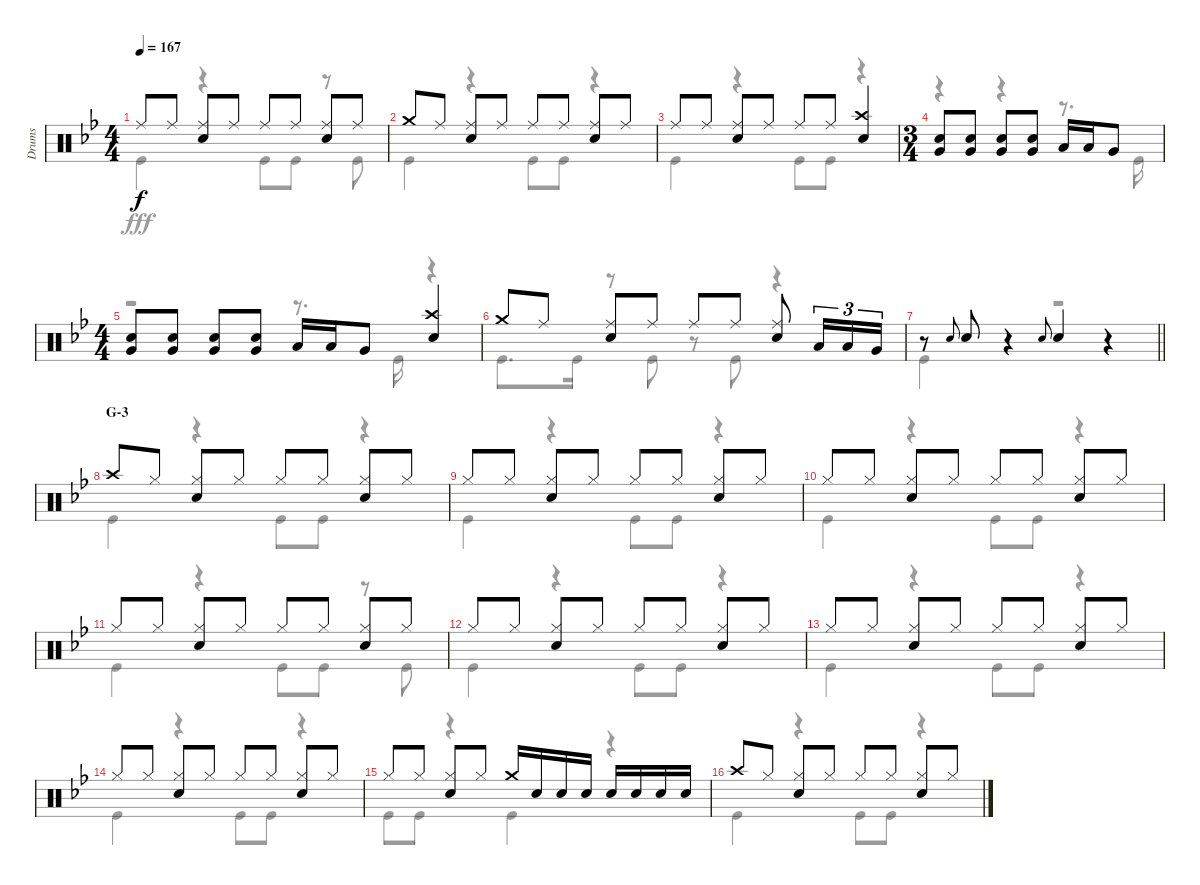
\track ("Drums" "Drums") {instrument percussion}
\staff {score}
\articulation defaults
\voice
\ts (4 4)
\tempo 167
\clef neutral
\ks bb "Ride (middle)".8{dy f} "Ride (middle)".8
("Ride (middle)" "Snare (hit) 2").8 "Ride (middle)".8 "Ride (middle)".8 "Ride (middle)".8 ("Ride (middle)" "Snare (hit) 2").8 "Ride (middle)".8 |
"Crash medium (hit)".8 "Ride (middle)".8 ("Ride (middle)" "Snare (hit) 2").8 "Ride (middle)".8 "Ride (middle)".8 "Ride (middle)".8 ("Ride (middle)" "Snare (hit) 2").8 "Ride (middle)".8 |
"Ride (middle)".8 "Ride (middle)".8 ("Ride (middle)" "Snare (hit) 2").8 "Ride (middle)".8 "Ride (middle)".8 "Ride (middle)".8 ("Crash high (hit)" "Snare (hit) 2").4 |
\ts (3 4)
("Snare (hit) 2" "Very Low Tom (hit)").8 ("Snare (hit) 2" "Very Low Tom (hit)").8 ("Snare (hit) 2" "Very Low Tom (hit)").8 ("Snare (hit) 2" "Very Low Tom (hit)").8 "Low Tom (hit)".16 "Low Tom (hit)".16 "Very Low Tom (hit)".8 |
\ts (4 4)
("Snare (hit) 2" "Very Low Tom (hit)").8 ("Snare (hit) 2" "Very Low Tom (hit)").8 ("Snare (hit) 2" "Very Low Tom (hit)").8 ("Snare (hit) 2" "Very Low Tom (hit)").8 "Low Tom (hit)".16 "Low Tom (hit)".16 "Very Low Tom (hit)".8 ("Crash high (hit)" "Snare (hit) 2").4 |
"Crash medium (hit)".8 "Ride (middle)".8 ("Ride (middle)" "Snare (hit) 2").8 "Ride (middle)".8 "Ride (middle)".8 "Ride (middle)".8 ("Ride (middle)" "Snare (hit) 2").8 "Low Tom (hit)".16{tu (3 2)} "Low Tom (hit)".16{tu (3 2)} "Very Low Tom (hit)".16{tu (3 2)} |
\barLineRight lightlight
r.8 "Snare (hit) 2".8{gr onbeat} "Snare (hit) 2".8 r.4 "Snare (hit) 2".8{gr onbeat} "Snare (hit) 2".4 r.4 |
\section ("" "G-3")
"Crash high (hit)".8 "Hi-Hat (closed)".8 ("Hi-Hat (closed)" "Snare (hit) 2").8 "Hi-Hat (closed)".8 "Hi-Hat (closed)".8 "Hi-Hat (closed)".8 ("Hi-Hat (closed)" "Snare (hit) 2").8 "Hi-Hat (closed)".8 |
"Hi-Hat (closed)".8 "Hi-Hat (closed)".8 ("Hi-Hat (closed)" "Snare (hit) 2").8 "Hi-Hat (closed)".8 "Hi-Hat (closed)".8 "Hi-Hat (closed)".8 ("Hi-Hat (closed)" "Snare (hit) 2").8 "Hi-Hat (closed)".8 |
"Hi-Hat (closed)".8 "Hi-Hat (closed)".8 ("Hi-Hat (closed)" "Snare (hit) 2").8 "Hi-Hat (closed)".8 "Hi-Hat (closed)".8 "Hi-Hat (closed)".8 ("Hi-Hat (closed)" "Snare (hit) 2").8 "Hi-Hat (closed)".8 |
"Hi-Hat (closed)".8 "Hi-Hat (closed)".8 ("Hi-Hat (closed)" "Snare (hit) 2").8 "Hi-Hat (closed)".8 "Hi-Hat (closed)".8 "Hi-Hat (closed)".8 ("Hi-Hat (closed)" "Snare (hit) 2").8 "Hi-Hat (closed)".8 |
"Hi-Hat (closed)".8 "Hi-Hat (closed)".8 ("Hi-Hat (closed)" "Snare (hit) 2").8 "Hi-Hat (closed)".8 "Hi-Hat (closed)".8 "Hi-Hat (closed)".8 ("Hi-Hat (closed)" "Snare (hit) 2").8 "Hi-Hat (closed)".8 |
"Hi-Hat (closed)".8 "Hi-Hat (closed)".8 ("Hi-Hat (closed)" "Snare (hit) 2").8 "Hi-Hat (closed)".8 "Hi-Hat (closed)".8 "Hi-Hat (closed)".8 ("Hi-Hat (closed)" "Snare (hit) 2").8 "Hi-Hat (closed)".8 |
"Hi-Hat (closed)".8 "Hi-Hat (closed)".8 ("Hi-Hat (closed)" "Snare (hit) 2").8 "Hi-Hat (closed)".8 "Hi-Hat (closed)".8 "Hi-Hat (closed)".8 ("Hi-Hat (closed)" "Snare (hit) 2").8 "Hi-Hat (closed)".8 |
"Hi-Hat (closed)".8 "Hi-Hat (closed)".8 ("Hi-Hat (closed)" "Snare (hit) 2").8 "Hi-Hat (closed)".8 "Crash medium (hit)".16 "Snare (hit) 2".16 "Snare (hit) 2".16 "Snare (hit) 2".16 "Snare (hit) 2".16 "Snare (hit) 2".16 "Snare (hit) 2".16 "Snare (hit) 2".16 |
"Crash high (hit)".8 "Hi-Hat (closed)".8 ("Hi-Hat (closed)" "Snare (hit) 2").8 "Hi-Hat (closed)".8 "Hi-Hat (closed)".8 "Hi-Hat (closed)".8 ("Hi-Hat (closed)" "Snare (hit) 2").8 "Hi-Hat (closed)".8
\voice
\clef neutral
\ottava regular
\simile none
\ks bb "Kick (hit)".4{dy fff}
r.4 "Kick (hit)".8 "Kick (hit)".8 r.8 "Kick (hit)".8 |
"Kick (hit)".4 r.4 "Kick (hit)".8 "Kick (hit)".8 r.4 |
"Kick (hit)".4 r.4 "Kick (hit)".8 "Kick (hit)".8 r.4 |
r.4 r.4 r.8{d} "Kick (hit)".16 |
r.2 r.8{d} "Kick (hit)".16 r.4 |
"Kick (hit)".8{d} "Kick (hit)".16 r.8 "Kick (hit)".8 r.8 "Kick (hit)".8 r.4 |
\barLineRight lightlight "Kick (hit)".4
r.4 r.2 |
"Kick (hit)".4 r.4 "Kick (hit)".8 "Kick (hit)".8 r.4 |
"Kick (hit)".4 r.4 "Kick (hit)".8 "Kick (hit)".8 r.4 |
"Kick (hit)".4 r.4 "Kick (hit)".8 "Kick (hit)".8 r.4 |
"Kick (hit)".4 r.4 "Kick (hit)".8 "Kick (hit)".8 r.8 "Kick (hit)".8 |
"Kick (hit)".4 r.4 "Kick (hit)".8 "Kick (hit)".8 r.4 |
"Kick (hit)".4 r.4 "Kick (hit)".8 "Kick (hit)".8 r.4 |
"Kick (hit)".4 r.4 "Kick (hit)".8 "Kick (hit)".8 r.4 |
"Kick (hit)".8 "Kick (hit)".8 r.4 "Kick (hit)".4 r.4 |
"Kick (hit)".4 r.4 "Kick (hit)".8 "Kick (hit)".8 r.4
